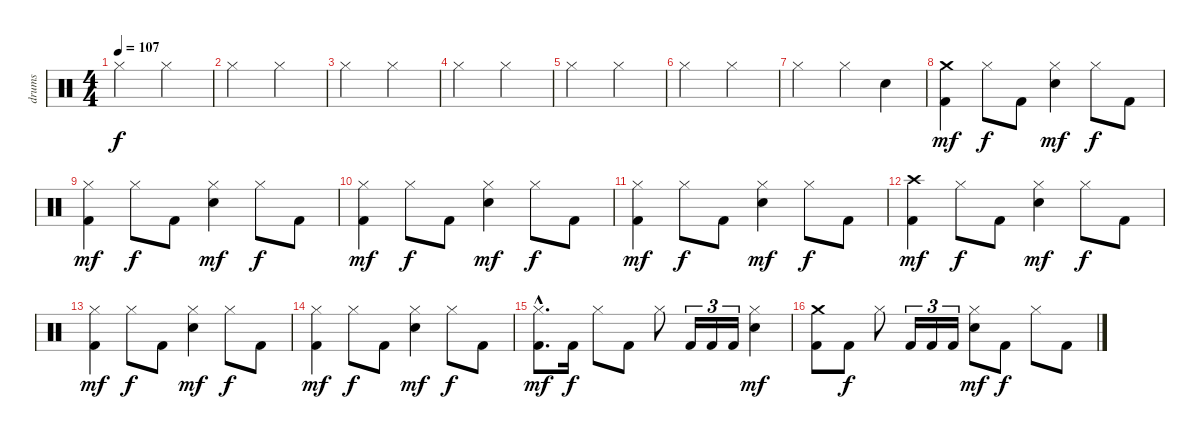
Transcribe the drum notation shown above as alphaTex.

\track ("drums" "drums") {instrument percussion}
\staff {score}
\articulation defaults
\ts (4 4)
\tempo 107
\clef neutral
\ks c "Hi-Hat (closed)".2{dy f} "Hi-Hat (closed)".2
|
"Hi-Hat (closed)".2 "Hi-Hat (closed)".2 |
"Hi-Hat (closed)".2 "Hi-Hat (closed)".2 |
"Hi-Hat (closed)".2 "Hi-Hat (closed)".2 |
"Hi-Hat (closed)".2 "Hi-Hat (closed)".2 |
"Hi-Hat (closed)".2 "Hi-Hat (closed)".2 |
"Hi-Hat (closed)".2 "Hi-Hat (closed)".4 "Snare (hit) 2".4 |
("Crash medium (hit)" "Kick (hit) 2").4{dy mf} "Hi-Hat (closed)".8{dy f} "Kick (hit) 2".8 ("Hi-Hat (closed)" "Snare (hit) 2").4{dy mf} "Hi-Hat (closed)".8{dy f} "Kick (hit) 2".8 |
("Hi-Hat (closed)" "Kick (hit) 2").4{dy mf} "Hi-Hat (closed)".8{dy f} "Kick (hit) 2".8 ("Hi-Hat (closed)" "Snare (hit) 2").4{dy mf} "Hi-Hat (closed)".8{dy f} "Kick (hit) 2".8 |
("Hi-Hat (closed)" "Kick (hit) 2").4{dy mf} "Hi-Hat (closed)".8{dy f} "Kick (hit) 2".8 ("Hi-Hat (closed)" "Snare (hit) 2").4{dy mf} "Hi-Hat (closed)".8{dy f} "Kick (hit) 2".8 |
("Hi-Hat (closed)" "Kick (hit) 2").4{dy mf} "Hi-Hat (closed)".8{dy f} "Kick (hit) 2".8 ("Hi-Hat (closed)" "Snare (hit) 2").4{dy mf} "Hi-Hat (closed)".8{dy f} "Kick (hit) 2".8 |
("Crash high (hit)" "Kick (hit) 2").4{dy mf} "Hi-Hat (closed)".8{dy f} "Kick (hit) 2".8 ("Hi-Hat (closed)" "Snare (hit) 2").4{dy mf} "Hi-Hat (closed)".8{dy f} "Kick (hit) 2".8 |
("Hi-Hat (closed)" "Kick (hit) 2").4{dy mf} "Hi-Hat (closed)".8{dy f} "Kick (hit) 2".8 ("Hi-Hat (closed)" "Snare (hit) 2").4{dy mf} "Hi-Hat (closed)".8{dy f} "Kick (hit) 2".8 |
("Hi-Hat (closed)" "Kick (hit) 2").4{dy mf} "Hi-Hat (closed)".8{dy f} "Kick (hit) 2".8 ("Hi-Hat (closed)" "Snare (hit) 2").4{dy mf} "Hi-Hat (closed)".8{dy f} "Kick (hit) 2".8 |
("Hi-Hat (closed)" "Kick (hit) 2"{hac}).8{d dy mf} "Kick (hit) 2".16{dy f} "Hi-Hat (closed)".8 "Kick (hit) 2".8 "Hi-Hat (closed)".8 "Kick (hit) 2".16{tu (3 2)} "Kick (hit) 2".16{tu (3 2)} "Kick (hit) 2".16{tu (3 2)} ("Hi-Hat (closed)" "Snare (hit) 2").4{dy mf} |
("Crash medium (hit)" "Kick (hit) 2").8 "Kick (hit) 2".8{dy f} "Hi-Hat (closed)".8 "Kick (hit) 2".16{tu (3 2)} "Kick (hit) 2".16{tu (3 2)} "Kick (hit) 2".16{tu (3 2)} ("Hi-Hat (closed)" "Snare (hit) 2").8{dy mf} "Kick (hit) 2".8{dy f} "Hi-Hat (closed)".8 "Kick (hit) 2".8
